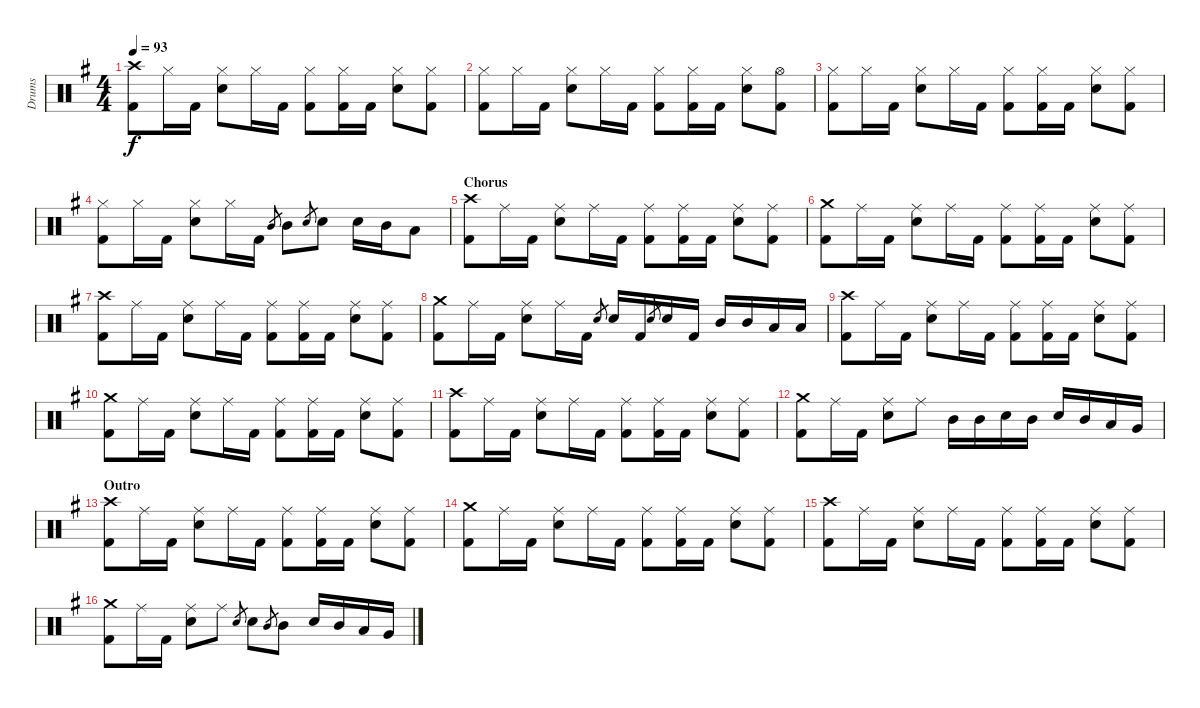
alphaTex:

\track ("Drums" "Drums") {instrument percussion}
\staff {score}
\articulation defaults
\ts (4 4)
\tempo 93
\clef neutral
\ks eminor
("Crash high (hit)" "Kick (hit) 2").8{dy f} "Hi-Hat (closed)".16 "Kick (hit) 2".16 ("Hi-Hat (closed)" "Snare (hit) 2").8 "Hi-Hat (closed)".16 "Kick (hit) 2".16 ("Hi-Hat (closed)" "Kick (hit) 2").8 ("Hi-Hat (closed)" "Kick (hit) 2").16 "Kick (hit) 2".16 ("Hi-Hat (closed)" "Snare (hit) 2").8 ("Hi-Hat (closed)" "Kick (hit) 2").8 |
("Hi-Hat (closed)" "Kick (hit) 2").8 "Hi-Hat (closed)".16 "Kick (hit) 2".16 ("Hi-Hat (closed)" "Snare (hit) 2").8 "Hi-Hat (closed)".16 "Kick (hit) 2".16 ("Hi-Hat (closed)" "Kick (hit) 2").8 ("Hi-Hat (closed)" "Kick (hit) 2").16 "Kick (hit) 2".16 ("Hi-Hat (closed)" "Snare (hit) 2").8 ("Hi-Hat (open)" "Kick (hit) 2").8 |
("Hi-Hat (closed)" "Kick (hit) 2").8 "Hi-Hat (closed)".16 "Kick (hit) 2".16 ("Hi-Hat (closed)" "Snare (hit) 2").8 "Hi-Hat (closed)".16 "Kick (hit) 2".16 ("Hi-Hat (closed)" "Kick (hit) 2").8 ("Hi-Hat (closed)" "Kick (hit) 2").16 "Kick (hit) 2".16 ("Hi-Hat (closed)" "Snare (hit) 2").8 ("Hi-Hat (closed)" "Kick (hit) 2").8 |
("Hi-Hat (closed)" "Kick (hit) 2").8 "Hi-Hat (closed)".16 "Kick (hit) 2".16 ("Hi-Hat (closed)" "Snare (hit) 2").8 "Hi-Hat (closed)".16 "Kick (hit) 2".16 "Mid Tom (hit)".8{gr} "Mid Tom (hit)".8 "Snare (hit) 2".8{gr} "Snare (hit) 2".8 "Snare (hit) 2".16 "Mid Tom (hit)".16 "Low Tom (hit)".8 |
\section ("" "Chorus")
("Crash high (hit)" "Kick (hit) 2").8 "Ride (middle)".16 "Kick (hit) 2".16 ("Ride (middle)" "Snare (hit) 2").8 "Ride (middle)".16 "Kick (hit) 2".16 ("Ride (middle)" "Kick (hit) 2").8 ("Ride (middle)" "Kick (hit) 2").16 "Kick (hit) 2".16 ("Ride (middle)" "Snare (hit) 2").8 ("Ride (middle)" "Kick (hit) 2").8 |
("Crash medium (hit)" "Kick (hit) 2").8 "Ride (middle)".16 "Kick (hit) 2".16 ("Ride (middle)" "Snare (hit) 2").8 "Ride (middle)".16 "Kick (hit) 2".16 ("Ride (middle)" "Kick (hit) 2").8 ("Ride (middle)" "Kick (hit) 2").16 "Kick (hit) 2".16 ("Ride (middle)" "Snare (hit) 2").8 ("Ride (middle)" "Kick (hit) 2").8 |
("Crash high (hit)" "Kick (hit) 2").8 "Ride (middle)".16 "Kick (hit) 2".16 ("Ride (middle)" "Snare (hit) 2").8 "Ride (middle)".16 "Kick (hit) 2".16 ("Ride (middle)" "Kick (hit) 2").8 ("Ride (middle)" "Kick (hit) 2").16 "Kick (hit) 2".16 ("Ride (middle)" "Snare (hit) 2").8 ("Ride (middle)" "Kick (hit) 2").8 |
("Crash medium (hit)" "Kick (hit) 2").8 "Ride (middle)".16 "Kick (hit) 2".16 ("Ride (middle)" "Snare (hit) 2").8 "Ride (middle)".16 "Kick (hit) 2".16 "Snare (hit) 2".8{gr} "Snare (hit) 2".16 "Kick (hit) 2".16 "Snare (hit) 2".8{gr} "Snare (hit) 2".16 "Kick (hit) 2".16 "Mid Tom (hit)".16 "Mid Tom (hit)".16 "Low Tom (hit)".16 "Low Tom (hit)".16 |
("Crash high (hit)" "Kick (hit) 2").8 "Ride (middle)".16 "Kick (hit) 2".16 ("Ride (middle)" "Snare (hit) 2").8 "Ride (middle)".16 "Kick (hit) 2".16 ("Ride (middle)" "Kick (hit) 2").8 ("Ride (middle)" "Kick (hit) 2").16 "Kick (hit) 2".16 ("Ride (middle)" "Snare (hit) 2").8 ("Ride (middle)" "Kick (hit) 2").8 |
("Crash medium (hit)" "Kick (hit) 2").8 "Ride (middle)".16 "Kick (hit) 2".16 ("Ride (middle)" "Snare (hit) 2").8 "Ride (middle)".16 "Kick (hit) 2".16 ("Ride (middle)" "Kick (hit) 2").8 ("Ride (middle)" "Kick (hit) 2").16 "Kick (hit) 2".16 ("Ride (middle)" "Snare (hit) 2").8 ("Ride (middle)" "Kick (hit) 2").8 |
("Crash high (hit)" "Kick (hit) 2").8 "Ride (middle)".16 "Kick (hit) 2".16 ("Ride (middle)" "Snare (hit) 2").8 "Ride (middle)".16 "Kick (hit) 2".16 ("Ride (middle)" "Kick (hit) 2").8 ("Ride (middle)" "Kick (hit) 2").16 "Kick (hit) 2".16 ("Ride (middle)" "Snare (hit) 2").8 ("Ride (middle)" "Kick (hit) 2").8 |
("Crash medium (hit)" "Kick (hit) 2").8 "Ride (middle)".16 "Kick (hit) 2".16 ("Ride (middle)" "Snare (hit) 2").8 "Ride (middle)".8 "Mid Tom (hit)".16 "Mid Tom (hit)".16 "Snare (hit) 2".16 "Mid Tom (hit)".16 "Snare (hit) 2".16 "Mid Tom (hit)".16 "Low Tom (hit)".16 "Very Low Tom (hit)".16 |
\section ("" "Outro")
("Crash high (hit)" "Kick (hit) 2").8 "Ride (middle)".16 "Kick (hit) 2".16 ("Ride (middle)" "Snare (hit) 2").8 "Ride (middle)".16 "Kick (hit) 2".16 ("Ride (middle)" "Kick (hit) 2").8 ("Ride (middle)" "Kick (hit) 2").16 "Kick (hit) 2".16 ("Ride (middle)" "Snare (hit) 2").8 ("Ride (middle)" "Kick (hit) 2").8 |
("Crash medium (hit)" "Kick (hit) 2").8 "Ride (middle)".16 "Kick (hit) 2".16 ("Ride (middle)" "Snare (hit) 2").8 "Ride (middle)".16 "Kick (hit) 2".16 ("Ride (middle)" "Kick (hit) 2").8 ("Ride (middle)" "Kick (hit) 2").16 "Kick (hit) 2".16 ("Ride (middle)" "Snare (hit) 2").8 ("Ride (middle)" "Kick (hit) 2").8 |
("Crash high (hit)" "Kick (hit) 2").8 "Ride (middle)".16 "Kick (hit) 2".16 ("Ride (middle)" "Snare (hit) 2").8 "Ride (middle)".16 "Kick (hit) 2".16 ("Ride (middle)" "Kick (hit) 2").8 ("Ride (middle)" "Kick (hit) 2").16 "Kick (hit) 2".16 ("Ride (middle)" "Snare (hit) 2").8 ("Ride (middle)" "Kick (hit) 2").8 |
("Crash medium (hit)" "Kick (hit) 2").8 "Ride (middle)".16 "Kick (hit) 2".16 ("Ride (middle)" "Snare (hit) 2").8 "Ride (middle)".8 "Snare (hit) 2".8{gr} "Snare (hit) 2".8 "Mid Tom (hit)".8{gr} "Mid Tom (hit)".8 "Snare (hit) 2".16 "Mid Tom (hit)".16 "Low Tom (hit)".16 "Very Low Tom (hit)".16
